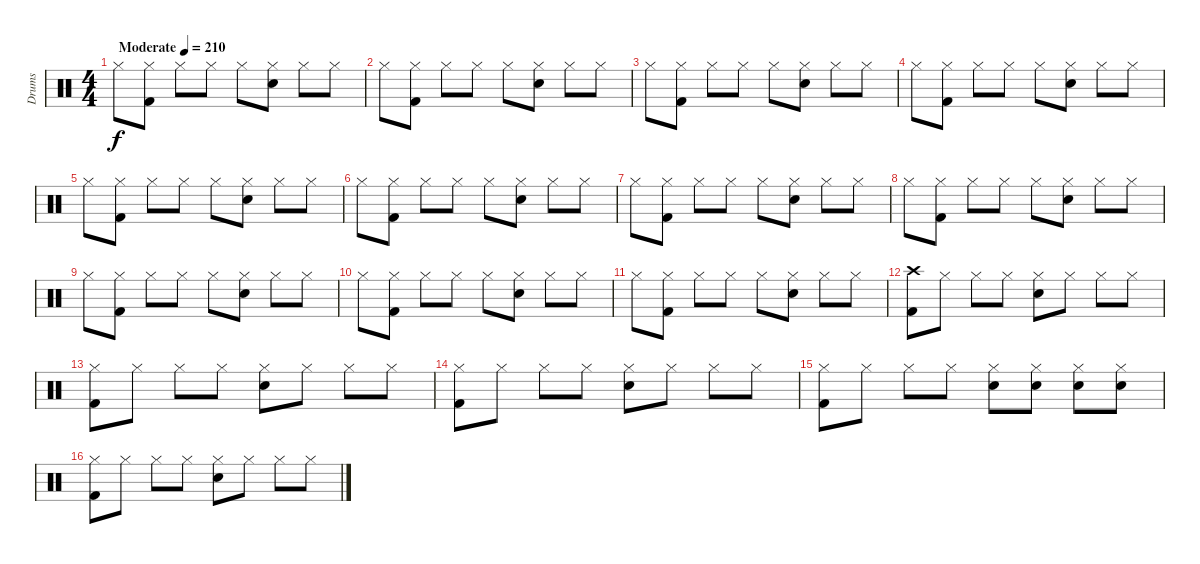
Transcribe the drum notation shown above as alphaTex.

\track ("Drums" "Drums") {instrument percussion}
\staff {score}
\articulation defaults
\ts (4 4)
\tempo (210 "Moderate")
\clef neutral
\ks c "Hi-Hat (closed)".8{dy f}
("Hi-Hat (closed)" "Kick (hit) 2").8 "Hi-Hat (closed)".8 "Hi-Hat (closed)".8 "Hi-Hat (closed)".8 ("Hi-Hat (closed)" "Electric Snare (hit)").8 "Hi-Hat (closed)".8 "Hi-Hat (closed)".8 |
"Hi-Hat (closed)".8 ("Hi-Hat (closed)" "Kick (hit) 2").8 "Hi-Hat (closed)".8 "Hi-Hat (closed)".8 "Hi-Hat (closed)".8 ("Hi-Hat (closed)" "Electric Snare (hit)").8 "Hi-Hat (closed)".8 "Hi-Hat (closed)".8 |
"Hi-Hat (closed)".8 ("Hi-Hat (closed)" "Kick (hit) 2").8 "Hi-Hat (closed)".8 "Hi-Hat (closed)".8 "Hi-Hat (closed)".8 ("Hi-Hat (closed)" "Electric Snare (hit)").8 "Hi-Hat (closed)".8 "Hi-Hat (closed)".8 |
"Hi-Hat (closed)".8 ("Hi-Hat (closed)" "Kick (hit) 2").8 "Hi-Hat (closed)".8 "Hi-Hat (closed)".8 "Hi-Hat (closed)".8 ("Hi-Hat (closed)" "Electric Snare (hit)").8 "Hi-Hat (closed)".8 "Hi-Hat (closed)".8 |
"Hi-Hat (closed)".8 ("Hi-Hat (closed)" "Kick (hit) 2").8 "Hi-Hat (closed)".8 "Hi-Hat (closed)".8 "Hi-Hat (closed)".8 ("Hi-Hat (closed)" "Electric Snare (hit)").8 "Hi-Hat (closed)".8 "Hi-Hat (closed)".8 |
"Hi-Hat (closed)".8 ("Hi-Hat (closed)" "Kick (hit) 2").8 "Hi-Hat (closed)".8 "Hi-Hat (closed)".8 "Hi-Hat (closed)".8 ("Hi-Hat (closed)" "Electric Snare (hit)").8 "Hi-Hat (closed)".8 "Hi-Hat (closed)".8 |
"Hi-Hat (closed)".8 ("Hi-Hat (closed)" "Kick (hit) 2").8 "Hi-Hat (closed)".8 "Hi-Hat (closed)".8 "Hi-Hat (closed)".8 ("Hi-Hat (closed)" "Electric Snare (hit)").8 "Hi-Hat (closed)".8 "Hi-Hat (closed)".8 |
"Hi-Hat (closed)".8 ("Hi-Hat (closed)" "Kick (hit) 2").8 "Hi-Hat (closed)".8 "Hi-Hat (closed)".8 "Hi-Hat (closed)".8 ("Hi-Hat (closed)" "Electric Snare (hit)").8 "Hi-Hat (closed)".8 "Hi-Hat (closed)".8 |
"Hi-Hat (closed)".8 ("Hi-Hat (closed)" "Kick (hit) 2").8 "Hi-Hat (closed)".8 "Hi-Hat (closed)".8 "Hi-Hat (closed)".8 ("Hi-Hat (closed)" "Electric Snare (hit)").8 "Hi-Hat (closed)".8 "Hi-Hat (closed)".8 |
"Hi-Hat (closed)".8 ("Hi-Hat (closed)" "Kick (hit) 2").8 "Hi-Hat (closed)".8 "Hi-Hat (closed)".8 "Hi-Hat (closed)".8 ("Hi-Hat (closed)" "Electric Snare (hit)").8 "Hi-Hat (closed)".8 "Hi-Hat (closed)".8 |
"Hi-Hat (closed)".8 ("Hi-Hat (closed)" "Kick (hit) 2").8 "Hi-Hat (closed)".8 "Hi-Hat (closed)".8 "Hi-Hat (closed)".8 ("Hi-Hat (closed)" "Electric Snare (hit)").8 "Hi-Hat (closed)".8 "Hi-Hat (closed)".8 |
("Crash high (hit)" "Kick (hit) 2").8 "Hi-Hat (closed)".8 "Hi-Hat (closed)".8 "Hi-Hat (closed)".8 ("Hi-Hat (closed)" "Electric Snare (hit)").8 "Hi-Hat (closed)".8 "Hi-Hat (closed)".8 "Hi-Hat (closed)".8 |
("Hi-Hat (closed)" "Kick (hit) 2").8 "Hi-Hat (closed)".8 "Hi-Hat (closed)".8 "Hi-Hat (closed)".8 ("Hi-Hat (closed)" "Electric Snare (hit)").8 "Hi-Hat (closed)".8 "Hi-Hat (closed)".8 "Hi-Hat (closed)".8 |
("Hi-Hat (closed)" "Kick (hit) 2").8 "Hi-Hat (closed)".8 "Hi-Hat (closed)".8 "Hi-Hat (closed)".8 ("Hi-Hat (closed)" "Electric Snare (hit)").8 "Hi-Hat (closed)".8 "Hi-Hat (closed)".8 "Hi-Hat (closed)".8 |
("Hi-Hat (closed)" "Kick (hit) 2").8 "Hi-Hat (closed)".8 "Hi-Hat (closed)".8 "Hi-Hat (closed)".8 ("Hi-Hat (closed)" "Electric Snare (hit)").8 ("Hi-Hat (closed)" "Electric Snare (hit)").8 ("Hi-Hat (closed)" "Electric Snare (hit)").8 ("Hi-Hat (closed)" "Electric Snare (hit)").8 |
("Hi-Hat (closed)" "Kick (hit) 2").8 "Hi-Hat (closed)".8 "Hi-Hat (closed)".8 "Hi-Hat (closed)".8 ("Hi-Hat (closed)" "Electric Snare (hit)").8 "Hi-Hat (closed)".8 "Hi-Hat (closed)".8 "Hi-Hat (closed)".8
